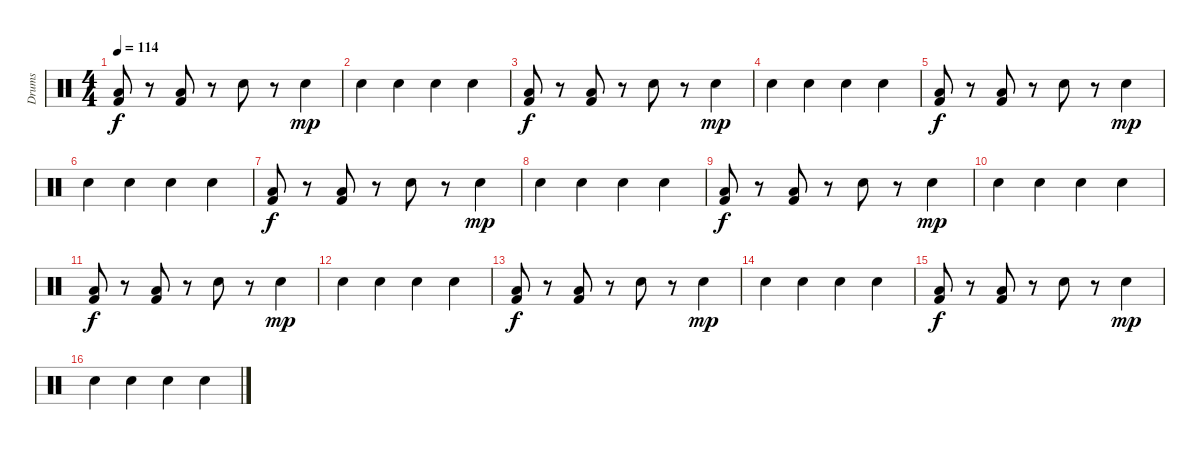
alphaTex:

\track ("Drums" "Drums") {instrument percussion}
\staff {score}
\articulation defaults
\ts (4 4)
\tempo 114
\clef neutral
\ks c
("Kick (hit) 2" "Low Floor Tom (hit)").8{dy f volume 16} r.8 ("Kick (hit) 2" "Low Floor Tom (hit)").8 r.8 "Snare (hit) 2".8{volume 1} r.8 "Snare (hit) 2".4{dy mp} |
"Snare (hit) 2".4 "Snare (hit) 2".4 "Snare (hit) 2".4 "Snare (hit) 2".4 |
("Kick (hit) 2" "Low Floor Tom (hit)").8{dy f volume 16} r.8 ("Kick (hit) 2" "Low Floor Tom (hit)").8 r.8 "Snare (hit) 2".8{volume 1} r.8 "Snare (hit) 2".4{dy mp} |
"Snare (hit) 2".4 "Snare (hit) 2".4 "Snare (hit) 2".4 "Snare (hit) 2".4 |
("Kick (hit) 2" "Low Floor Tom (hit)").8{dy f volume 16} r.8 ("Kick (hit) 2" "Low Floor Tom (hit)").8 r.8 "Snare (hit) 2".8{volume 1} r.8 "Snare (hit) 2".4{dy mp} |
"Snare (hit) 2".4 "Snare (hit) 2".4 "Snare (hit) 2".4 "Snare (hit) 2".4 |
("Kick (hit) 2" "Low Floor Tom (hit)").8{dy f volume 16} r.8 ("Kick (hit) 2" "Low Floor Tom (hit)").8 r.8 "Snare (hit) 2".8{volume 1} r.8 "Snare (hit) 2".4{dy mp} |
"Snare (hit) 2".4 "Snare (hit) 2".4 "Snare (hit) 2".4 "Snare (hit) 2".4 |
("Kick (hit) 2" "Low Floor Tom (hit)").8{dy f volume 16} r.8 ("Kick (hit) 2" "Low Floor Tom (hit)").8 r.8 "Snare (hit) 2".8{volume 1} r.8 "Snare (hit) 2".4{dy mp} |
"Snare (hit) 2".4 "Snare (hit) 2".4 "Snare (hit) 2".4 "Snare (hit) 2".4 |
("Kick (hit) 2" "Low Floor Tom (hit)").8{dy f volume 16} r.8 ("Kick (hit) 2" "Low Floor Tom (hit)").8 r.8 "Snare (hit) 2".8{volume 1} r.8 "Snare (hit) 2".4{dy mp} |
"Snare (hit) 2".4 "Snare (hit) 2".4 "Snare (hit) 2".4 "Snare (hit) 2".4 |
("Kick (hit) 2" "Low Floor Tom (hit)").8{dy f volume 16} r.8 ("Kick (hit) 2" "Low Floor Tom (hit)").8 r.8 "Snare (hit) 2".8{volume 1} r.8 "Snare (hit) 2".4{dy mp} |
"Snare (hit) 2".4 "Snare (hit) 2".4 "Snare (hit) 2".4 "Snare (hit) 2".4 |
("Kick (hit) 2" "Low Floor Tom (hit)").8{dy f volume 16} r.8 ("Kick (hit) 2" "Low Floor Tom (hit)").8 r.8 "Snare (hit) 2".8{volume 1} r.8 "Snare (hit) 2".4{dy mp} |
"Snare (hit) 2".4 "Snare (hit) 2".4 "Snare (hit) 2".4 "Snare (hit) 2".4
